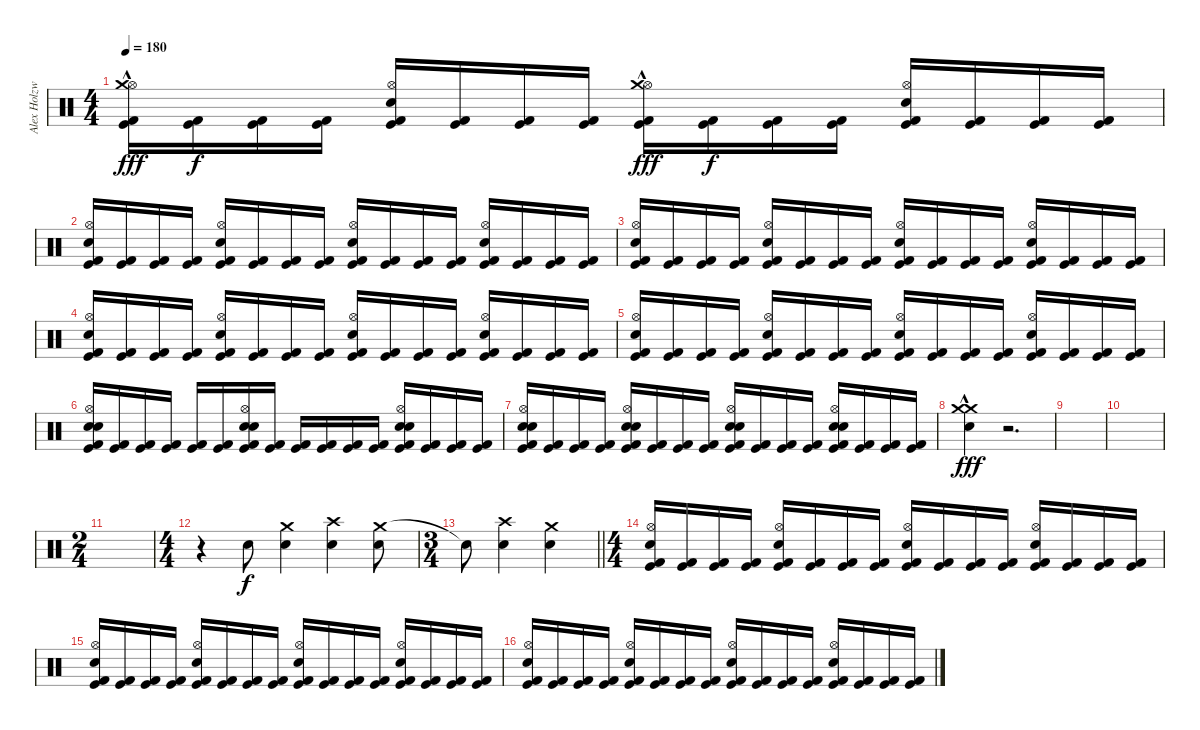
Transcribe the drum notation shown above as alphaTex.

\track ("Alex Holzwarth" "Alex Holzw") {instrument percussion}
\staff {score}
\articulation defaults
\ts (4 4)
\tempo 180
\clef neutral
\ks c
("Kick (hit) 2" "Kick (hit)" "Hi-Hat (open)" "Crash medium (hit)"{hac}).16{dy fff} ("Kick (hit) 2" "Kick (hit)").16{dy f} ("Kick (hit) 2" "Kick (hit)").16 ("Kick (hit) 2" "Kick (hit)").16 ("Kick (hit) 2" "Kick (hit)" "Hi-Hat (open)" "Snare (hit) 2").16 ("Kick (hit) 2" "Kick (hit)").16 ("Kick (hit) 2" "Kick (hit)").16 ("Kick (hit) 2" "Kick (hit)").16 ("Kick (hit) 2" "Kick (hit)" "Hi-Hat (open)" "Crash medium (hit)"{hac}).16{dy fff} ("Kick (hit) 2" "Kick (hit)").16{dy f} ("Kick (hit) 2" "Kick (hit)").16 ("Kick (hit) 2" "Kick (hit)").16 ("Kick (hit) 2" "Kick (hit)" "Hi-Hat (open)" "Snare (hit) 2").16 ("Kick (hit) 2" "Kick (hit)").16 ("Kick (hit) 2" "Kick (hit)").16 ("Kick (hit) 2" "Kick (hit)").16 |
("Kick (hit) 2" "Kick (hit)" "Snare (hit) 2" "Hi-Hat (open)").16 ("Kick (hit) 2" "Kick (hit)").16 ("Kick (hit) 2" "Kick (hit)").16 ("Kick (hit) 2" "Kick (hit)").16 ("Kick (hit) 2" "Kick (hit)" "Hi-Hat (open)" "Snare (hit) 2").16 ("Kick (hit) 2" "Kick (hit)").16 ("Kick (hit) 2" "Kick (hit)").16 ("Kick (hit) 2" "Kick (hit)").16 ("Kick (hit) 2" "Kick (hit)" "Hi-Hat (open)" "Snare (hit) 2").16 ("Kick (hit) 2" "Kick (hit)").16 ("Kick (hit) 2" "Kick (hit)").16 ("Kick (hit) 2" "Kick (hit)").16 ("Kick (hit) 2" "Kick (hit)" "Hi-Hat (open)" "Snare (hit) 2").16 ("Kick (hit) 2" "Kick (hit)").16 ("Kick (hit) 2" "Kick (hit)").16 ("Kick (hit) 2" "Kick (hit)").16 |
("Kick (hit) 2" "Kick (hit)" "Snare (hit) 2" "Hi-Hat (open)").16 ("Kick (hit) 2" "Kick (hit)").16 ("Kick (hit) 2" "Kick (hit)").16 ("Kick (hit) 2" "Kick (hit)").16 ("Kick (hit) 2" "Kick (hit)" "Hi-Hat (open)" "Snare (hit) 2").16 ("Kick (hit) 2" "Kick (hit)").16 ("Kick (hit) 2" "Kick (hit)").16 ("Kick (hit) 2" "Kick (hit)").16 ("Kick (hit) 2" "Kick (hit)" "Hi-Hat (open)" "Snare (hit) 2").16 ("Kick (hit) 2" "Kick (hit)").16 ("Kick (hit) 2" "Kick (hit)").16 ("Kick (hit) 2" "Kick (hit)").16 ("Kick (hit) 2" "Kick (hit)" "Hi-Hat (open)" "Snare (hit) 2").16 ("Kick (hit) 2" "Kick (hit)").16 ("Kick (hit) 2" "Kick (hit)").16 ("Kick (hit) 2" "Kick (hit)").16 |
("Kick (hit) 2" "Kick (hit)" "Snare (hit) 2" "Hi-Hat (open)").16 ("Kick (hit) 2" "Kick (hit)").16 ("Kick (hit) 2" "Kick (hit)").16 ("Kick (hit) 2" "Kick (hit)").16 ("Kick (hit) 2" "Kick (hit)" "Hi-Hat (open)" "Snare (hit) 2").16 ("Kick (hit) 2" "Kick (hit)").16 ("Kick (hit) 2" "Kick (hit)").16 ("Kick (hit) 2" "Kick (hit)").16 ("Kick (hit) 2" "Kick (hit)" "Hi-Hat (open)" "Snare (hit) 2").16 ("Kick (hit) 2" "Kick (hit)").16 ("Kick (hit) 2" "Kick (hit)").16 ("Kick (hit) 2" "Kick (hit)").16 ("Kick (hit) 2" "Kick (hit)" "Hi-Hat (open)" "Snare (hit) 2").16 ("Kick (hit) 2" "Kick (hit)").16 ("Kick (hit) 2" "Kick (hit)").16 ("Kick (hit) 2" "Kick (hit)").16 |
("Kick (hit) 2" "Kick (hit)" "Snare (hit) 2" "Hi-Hat (open)").16 ("Kick (hit) 2" "Kick (hit)").16 ("Kick (hit) 2" "Kick (hit)").16 ("Kick (hit) 2" "Kick (hit)").16 ("Kick (hit) 2" "Kick (hit)" "Hi-Hat (open)" "Snare (hit) 2").16 ("Kick (hit) 2" "Kick (hit)").16 ("Kick (hit) 2" "Kick (hit)").16 ("Kick (hit) 2" "Kick (hit)").16 ("Kick (hit) 2" "Kick (hit)" "Hi-Hat (open)" "Snare (hit) 2").16 ("Kick (hit) 2" "Kick (hit)").16 ("Kick (hit) 2" "Kick (hit)").16 ("Kick (hit) 2" "Kick (hit)").16 ("Kick (hit) 2" "Kick (hit)" "Hi-Hat (open)" "Snare (hit) 2").16 ("Kick (hit) 2" "Kick (hit)").16 ("Kick (hit) 2" "Kick (hit)").16 ("Kick (hit) 2" "Kick (hit)").16 |
("Kick (hit) 2" "Kick (hit)" "Snare (hit) 2" "Electric Snare (hit)" "Hi-Hat (open)").16 ("Kick (hit) 2" "Kick (hit)").16 ("Kick (hit) 2" "Kick (hit)").16 ("Kick (hit) 2" "Kick (hit)").16 ("Kick (hit) 2" "Kick (hit)").16 ("Kick (hit) 2" "Kick (hit)").16 ("Kick (hit) 2" "Kick (hit)" "Snare (hit) 2" "Electric Snare (hit)" "Hi-Hat (open)").16 ("Kick (hit) 2" "Kick (hit)").16 ("Kick (hit) 2" "Kick (hit)").16 ("Kick (hit) 2" "Kick (hit)").16 ("Kick (hit) 2" "Kick (hit)").16 ("Kick (hit) 2" "Kick (hit)").16 ("Kick (hit) 2" "Kick (hit)" "Snare (hit) 2" "Electric Snare (hit)" "Hi-Hat (open)").16 ("Kick (hit) 2" "Kick (hit)").16 ("Kick (hit) 2" "Kick (hit)").16 ("Kick (hit) 2" "Kick (hit)").16 |
("Kick (hit) 2" "Kick (hit)" "Snare (hit) 2" "Electric Snare (hit)" "Hi-Hat (open)").16 ("Kick (hit) 2" "Kick (hit)").16 ("Kick (hit) 2" "Kick (hit)").16 ("Kick (hit) 2" "Kick (hit)").16 ("Kick (hit) 2" "Kick (hit)" "Snare (hit) 2" "Electric Snare (hit)" "Hi-Hat (open)").16 ("Kick (hit) 2" "Kick (hit)").16 ("Kick (hit) 2" "Kick (hit)").16 ("Kick (hit) 2" "Kick (hit)").16 ("Kick (hit) 2" "Kick (hit)" "Hi-Hat (open)" "Snare (hit) 2" "Electric Snare (hit)").16 ("Kick (hit) 2" "Kick (hit)").16 ("Kick (hit) 2" "Kick (hit)").16 ("Kick (hit) 2" "Kick (hit)").16 ("Kick (hit) 2" "Kick (hit)" "Snare (hit) 2" "Electric Snare (hit)" "Hi-Hat (open)").16 ("Kick (hit) 2" "Kick (hit)").16 ("Kick (hit) 2" "Kick (hit)").16 ("Kick (hit) 2" "Kick (hit)").16 |
("Crash medium (hit)"{hac} "Snare (hit) 2" "Crash medium (hit)"{hac}).4{dy fff volume 13} r.2{d volume 0} |
|
|
\ts (2 4)
|
\ts (4 4)
r.4 "Snare (hit) 2".8{dy f} ("Crash medium (hit)" "Snare (hit) 2").4 ("Crash high (hit)" "Snare (hit) 2").4 ("Crash medium (hit)" "Snare (hit) 2").8 |
\ts (3 4)
\barLineRight lightlight "Snare (hit)"{t}.8
("Crash high (hit)" "Snare (hit) 2").4 ("Crash medium (hit)" "Snare (hit) 2").4 |
\ts (4 4)
("Kick (hit) 2" "Kick (hit)" "Snare (hit) 2" "Hi-Hat (open)").16 ("Kick (hit) 2" "Kick (hit)").16 ("Kick (hit) 2" "Kick (hit)").16 ("Kick (hit) 2" "Kick (hit)").16 ("Kick (hit) 2" "Kick (hit)" "Hi-Hat (open)" "Snare (hit) 2").16 ("Kick (hit) 2" "Kick (hit)").16 ("Kick (hit) 2" "Kick (hit)").16 ("Kick (hit) 2" "Kick (hit)").16 ("Kick (hit) 2" "Kick (hit)" "Hi-Hat (open)" "Snare (hit) 2").16 ("Kick (hit) 2" "Kick (hit)").16 ("Kick (hit) 2" "Kick (hit)").16 ("Kick (hit) 2" "Kick (hit)").16 ("Kick (hit) 2" "Kick (hit)" "Hi-Hat (open)" "Snare (hit) 2").16 ("Kick (hit) 2" "Kick (hit)").16 ("Kick (hit) 2" "Kick (hit)").16 ("Kick (hit) 2" "Kick (hit)").16 |
("Kick (hit) 2" "Kick (hit)" "Snare (hit) 2" "Hi-Hat (open)").16 ("Kick (hit) 2" "Kick (hit)").16 ("Kick (hit) 2" "Kick (hit)").16 ("Kick (hit) 2" "Kick (hit)").16 ("Kick (hit) 2" "Kick (hit)" "Hi-Hat (open)" "Snare (hit) 2").16 ("Kick (hit) 2" "Kick (hit)").16 ("Kick (hit) 2" "Kick (hit)").16 ("Kick (hit) 2" "Kick (hit)").16 ("Kick (hit) 2" "Kick (hit)" "Hi-Hat (open)" "Snare (hit) 2").16 ("Kick (hit) 2" "Kick (hit)").16 ("Kick (hit) 2" "Kick (hit)").16 ("Kick (hit) 2" "Kick (hit)").16 ("Kick (hit) 2" "Kick (hit)" "Hi-Hat (open)" "Snare (hit) 2").16 ("Kick (hit) 2" "Kick (hit)").16 ("Kick (hit) 2" "Kick (hit)").16 ("Kick (hit) 2" "Kick (hit)").16 |
("Kick (hit) 2" "Kick (hit)" "Snare (hit) 2" "Hi-Hat (open)").16 ("Kick (hit) 2" "Kick (hit)").16 ("Kick (hit) 2" "Kick (hit)").16 ("Kick (hit) 2" "Kick (hit)").16 ("Kick (hit) 2" "Kick (hit)" "Hi-Hat (open)" "Snare (hit) 2").16 ("Kick (hit) 2" "Kick (hit)").16 ("Kick (hit) 2" "Kick (hit)").16 ("Kick (hit) 2" "Kick (hit)").16 ("Kick (hit) 2" "Kick (hit)" "Hi-Hat (open)" "Snare (hit) 2").16 ("Kick (hit) 2" "Kick (hit)").16 ("Kick (hit) 2" "Kick (hit)").16 ("Kick (hit) 2" "Kick (hit)").16 ("Kick (hit) 2" "Kick (hit)" "Hi-Hat (open)" "Snare (hit) 2").16 ("Kick (hit) 2" "Kick (hit)").16 ("Kick (hit) 2" "Kick (hit)").16 ("Kick (hit) 2" "Kick (hit)").16
